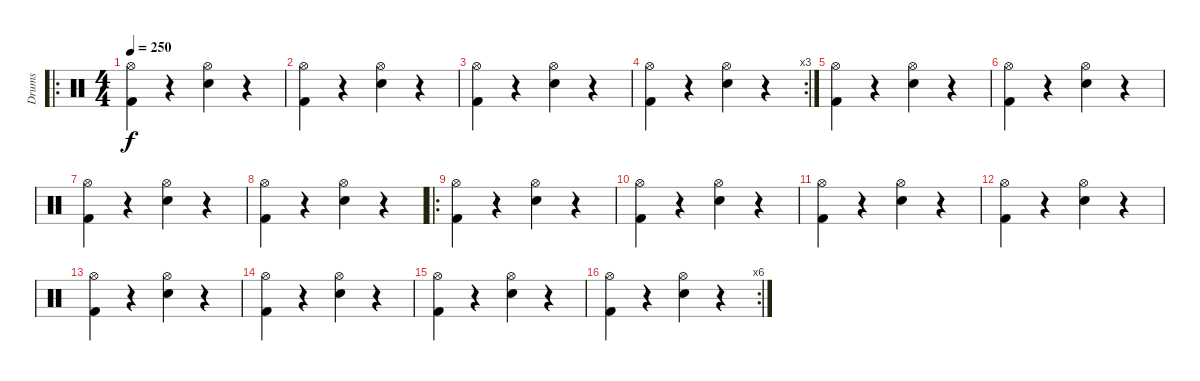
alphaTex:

\track ("Drums" "Drums") {instrument percussion}
\staff {score}
\articulation defaults
\ro
\ts (4 4)
\tempo 250
\clef neutral
\ks c
("Hi-Hat (open)" "Kick (hit) 2").4{dy f} r.4 ("Hi-Hat (open)" "Snare (hit) 2").4 r.4 |
("Hi-Hat (open)" "Kick (hit) 2").4 r.4 ("Hi-Hat (open)" "Snare (hit) 2").4 r.4 |
("Hi-Hat (open)" "Kick (hit) 2").4 r.4 ("Hi-Hat (open)" "Snare (hit) 2").4 r.4 |
\rc 3
("Hi-Hat (open)" "Kick (hit) 2").4 r.4 ("Hi-Hat (open)" "Snare (hit) 2").4 r.4 |
("Hi-Hat (open)" "Kick (hit) 2").4 r.4 ("Hi-Hat (open)" "Snare (hit) 2").4 r.4 |
("Hi-Hat (open)" "Kick (hit) 2").4 r.4 ("Hi-Hat (open)" "Snare (hit) 2").4 r.4 |
("Hi-Hat (open)" "Kick (hit) 2").4 r.4 ("Hi-Hat (open)" "Snare (hit) 2").4 r.4 |
("Hi-Hat (open)" "Kick (hit) 2").4 r.4 ("Hi-Hat (open)" "Snare (hit) 2").4 r.4 |
\ro
("Hi-Hat (open)" "Kick (hit) 2").4 r.4 ("Hi-Hat (open)" "Snare (hit) 2").4 r.4 |
("Hi-Hat (open)" "Kick (hit) 2").4 r.4 ("Hi-Hat (open)" "Snare (hit) 2").4 r.4 |
("Hi-Hat (open)" "Kick (hit) 2").4 r.4 ("Hi-Hat (open)" "Snare (hit) 2").4 r.4 |
("Hi-Hat (open)" "Kick (hit) 2").4 r.4 ("Hi-Hat (open)" "Snare (hit) 2").4 r.4 |
("Hi-Hat (open)" "Kick (hit) 2").4 r.4 ("Hi-Hat (open)" "Snare (hit) 2").4 r.4 |
("Hi-Hat (open)" "Kick (hit) 2").4 r.4 ("Hi-Hat (open)" "Snare (hit) 2").4 r.4 |
("Hi-Hat (open)" "Kick (hit) 2").4 r.4 ("Hi-Hat (open)" "Snare (hit) 2").4 r.4 |
\rc 6
("Hi-Hat (open)" "Kick (hit) 2").4 r.4 ("Hi-Hat (open)" "Snare (hit) 2").4 r.4
